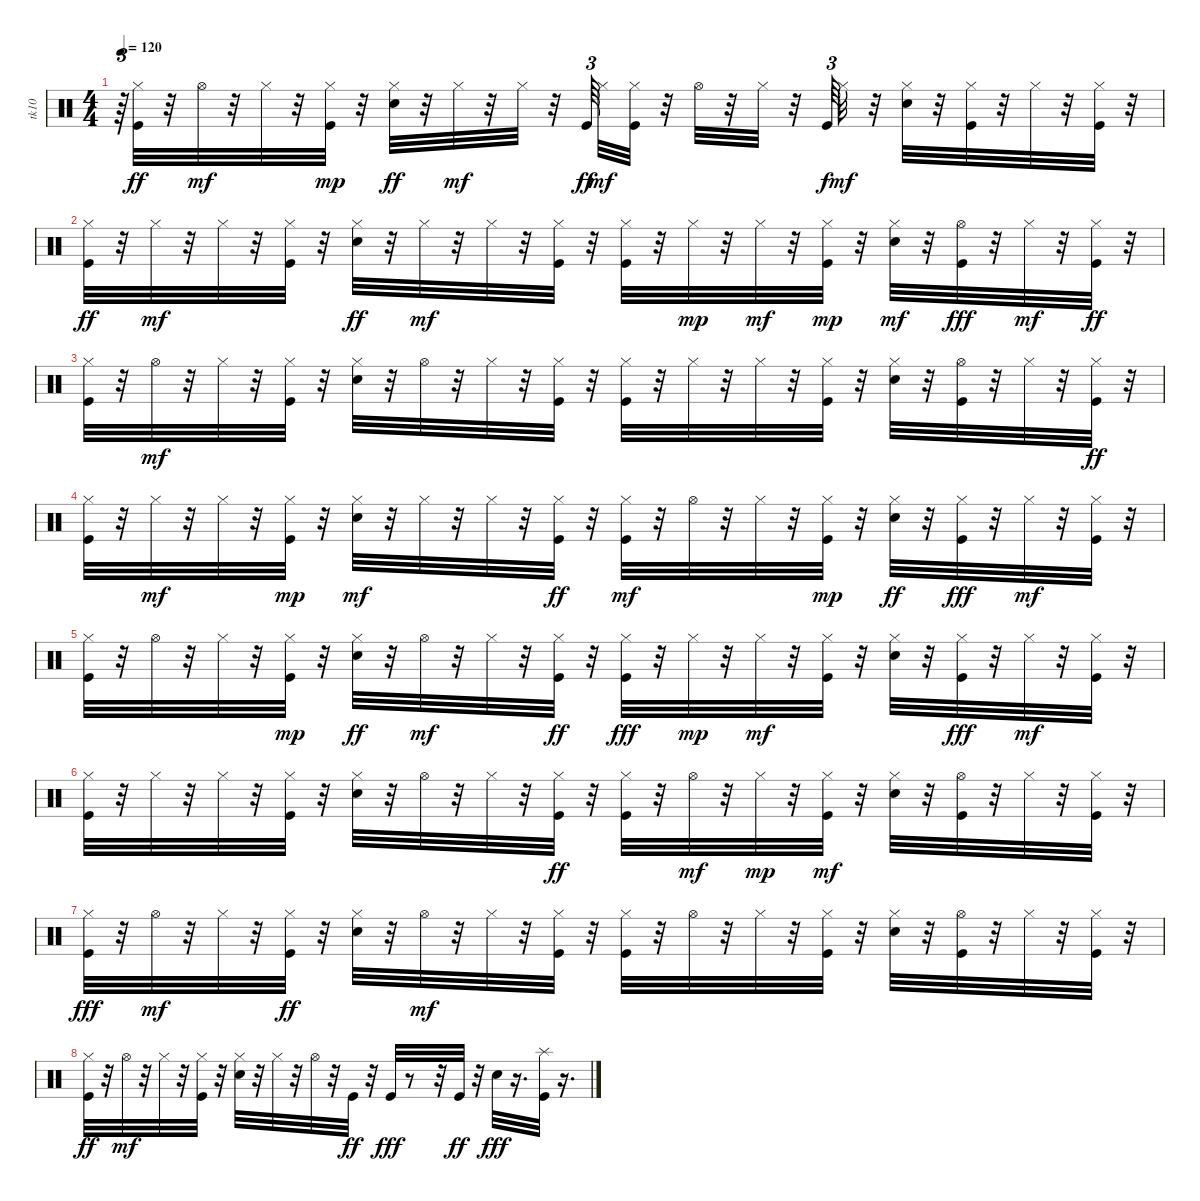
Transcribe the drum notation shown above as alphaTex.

\track ("tk10" "tk10") {instrument percussion}
\staff {score}
\articulation defaults
\ts (4 4)
\tempo 120
\clef neutral
\ks c
r.64{tu (3 2) dy ff} ("Hi-Hat (closed)" "Kick (hit)").32 r.32 "Hi-Hat (open)".32{dy mf} r.32 "Hi-Hat (closed)".32 r.32 ("Kick (hit)" "Hi-Hat (closed)").32{dy mp} r.32 ("Hi-Hat (closed)" "Snare (hit) 2").32{dy ff} r.32 "Hi-Hat (closed)".32{dy mf} r.32 "Hi-Hat (closed)".32 r.32 "Kick (hit)".64{tu (3 2) dy ff beam splitsecondary} "Hi-Hat (closed)".32{dy mf} ("Kick (hit)" "Hi-Hat (closed)").32 r.32 "Hi-Hat (open)".32 r.32 "Hi-Hat (closed)".32 r.32 "Kick (hit)".64{tu (3 2) dy f} "Hi-Hat (closed)".32{dy mf} r.32 ("Snare (hit) 2" "Hi-Hat (closed)").32 r.32 ("Kick (hit)" "Hi-Hat (closed)").32 r.32 "Hi-Hat (closed)".32 r.32 ("Kick (hit)" "Hi-Hat (closed)").32 r.32 |
("Hi-Hat (closed)" "Kick (hit)").32{dy ff} r.32 "Hi-Hat (closed)".32{dy mf} r.32 "Hi-Hat (closed)".32 r.32 ("Kick (hit)" "Hi-Hat (closed)").32 r.32 ("Hi-Hat (closed)" "Snare (hit) 2").32{dy ff} r.32 "Hi-Hat (closed)".32{dy mf} r.32 "Hi-Hat (closed)".32 r.32 ("Kick (hit)" "Hi-Hat (closed)").32 r.32 ("Kick (hit)" "Hi-Hat (closed)").32 r.32 "Hi-Hat (closed)".32{dy mp} r.32 "Hi-Hat (closed)".32{dy mf} r.32 ("Kick (hit)" "Hi-Hat (closed)").32{dy mp} r.32 ("Snare (hit) 2" "Hi-Hat (closed)").32{dy mf} r.32 ("Hi-Hat (open)" "Kick (hit)").32{dy fff} r.32 "Hi-Hat (closed)".32{dy mf} r.32 ("Hi-Hat (closed)" "Kick (hit)").32{dy ff} r.32 |
("Hi-Hat (closed)" "Kick (hit)").32 r.32 "Hi-Hat (open)".32{dy mf} r.32 "Hi-Hat (closed)".32 r.32 ("Kick (hit)" "Hi-Hat (closed)").32 r.32 ("Snare (hit) 2" "Hi-Hat (closed)").32 r.32 "Hi-Hat (open)".32 r.32 "Hi-Hat (closed)".32 r.32 ("Kick (hit)" "Hi-Hat (closed)").32 r.32 ("Kick (hit)" "Hi-Hat (closed)").32 r.32 "Hi-Hat (closed)".32 r.32 "Hi-Hat (closed)".32 r.32 ("Kick (hit)" "Hi-Hat (closed)").32 r.32 ("Snare (hit) 2" "Hi-Hat (closed)").32 r.32 ("Kick (hit)" "Hi-Hat (open)").32 r.32 "Hi-Hat (closed)".32 r.32 ("Hi-Hat (closed)" "Kick (hit)").32{dy ff} r.32 |
("Hi-Hat (closed)" "Kick (hit)").32 r.32 "Hi-Hat (closed)".32{dy mf} r.32 "Hi-Hat (closed)".32 r.32 ("Kick (hit)" "Hi-Hat (closed)").32{dy mp} r.32 ("Snare (hit) 2" "Hi-Hat (closed)").32{dy mf} r.32 "Hi-Hat (closed)".32 r.32 "Hi-Hat (closed)".32 r.32 ("Hi-Hat (closed)" "Kick (hit)").32{dy ff} r.32 ("Kick (hit)" "Hi-Hat (closed)").32{dy mf} r.32 "Hi-Hat (open)".32 r.32 "Hi-Hat (closed)".32 r.32 ("Kick (hit)" "Hi-Hat (closed)").32{dy mp} r.32 ("Hi-Hat (closed)" "Snare (hit) 2").32{dy ff} r.32 ("Hi-Hat (closed)" "Kick (hit)").32{dy fff} r.32 "Hi-Hat (closed)".32{dy mf} r.32 ("Kick (hit)" "Hi-Hat (closed)").32 r.32 |
("Kick (hit)" "Hi-Hat (closed)").32 r.32 "Hi-Hat (open)".32 r.32 "Hi-Hat (closed)".32 r.32 ("Kick (hit)" "Hi-Hat (closed)").32{dy mp} r.32 ("Hi-Hat (closed)" "Snare (hit) 2").32{dy ff} r.32 "Hi-Hat (open)".32{dy mf} r.32 "Hi-Hat (closed)".32 r.32 ("Hi-Hat (closed)" "Kick (hit)").32{dy ff} r.32 ("Hi-Hat (closed)" "Kick (hit)").32{dy fff} r.32 "Hi-Hat (closed)".32{dy mp} r.32 "Hi-Hat (closed)".32{dy mf} r.32 ("Kick (hit)" "Hi-Hat (closed)").32 r.32 ("Snare (hit) 2" "Hi-Hat (closed)").32 r.32 ("Hi-Hat (closed)" "Kick (hit)").32{dy fff} r.32 "Hi-Hat (closed)".32{dy mf} r.32 ("Kick (hit)" "Hi-Hat (closed)").32 r.32 |
("Kick (hit)" "Hi-Hat (closed)").32 r.32 "Hi-Hat (closed)".32 r.32 "Hi-Hat (closed)".32 r.32 ("Kick (hit)" "Hi-Hat (closed)").32 r.32 ("Snare (hit) 2" "Hi-Hat (closed)").32 r.32 "Hi-Hat (open)".32 r.32 "Hi-Hat (closed)".32 r.32 ("Hi-Hat (closed)" "Kick (hit)").32{dy ff} r.32 ("Hi-Hat (closed)" "Kick (hit)").32 r.32 "Hi-Hat (open)".32{dy mf} r.32 "Hi-Hat (closed)".32{dy mp} r.32 ("Kick (hit)" "Hi-Hat (closed)").32{dy mf} r.32 ("Snare (hit) 2" "Hi-Hat (closed)").32 r.32 ("Kick (hit)" "Hi-Hat (open)").32 r.32 "Hi-Hat (closed)".32 r.32 ("Hi-Hat (closed)" "Kick (hit)").32 r.32 |
("Hi-Hat (closed)" "Kick (hit)").32{dy fff} r.32 "Hi-Hat (open)".32{dy mf} r.32 "Hi-Hat (closed)".32 r.32 ("Hi-Hat (closed)" "Kick (hit)").32{dy ff} r.32 ("Hi-Hat (closed)" "Snare (hit) 2").32 r.32 "Hi-Hat (open)".32{dy mf} r.32 "Hi-Hat (closed)".32 r.32 ("Kick (hit)" "Hi-Hat (closed)").32 r.32 ("Kick (hit)" "Hi-Hat (closed)").32 r.32 "Hi-Hat (open)".32 r.32 "Hi-Hat (closed)".32 r.32 ("Kick (hit)" "Hi-Hat (closed)").32 r.32 ("Snare (hit) 2" "Hi-Hat (closed)").32 r.32 ("Kick (hit)" "Hi-Hat (open)").32 r.32 "Hi-Hat (closed)".32 r.32 ("Kick (hit)" "Hi-Hat (closed)").32 r.32 |
("Hi-Hat (closed)" "Kick (hit)").32{dy ff} r.32 "Hi-Hat (open)".32{dy mf} r.32 "Hi-Hat (closed)".32 r.32 ("Kick (hit)" "Hi-Hat (closed)").32 r.32 ("Snare (hit) 2" "Hi-Hat (closed)").32 r.32 "Hi-Hat (closed)".32 r.32 "Hi-Hat (open)".32 r.32 "Kick (hit)".32{dy ff} r.32 "Kick (hit)".32{dy fff} r.8 r.32 "Kick (hit)".32{dy ff} r.32 "Snare (hit) 2".32{dy fff} r.16{d} ("Splash (hit)" "Kick (hit)").32 r.16{d}
